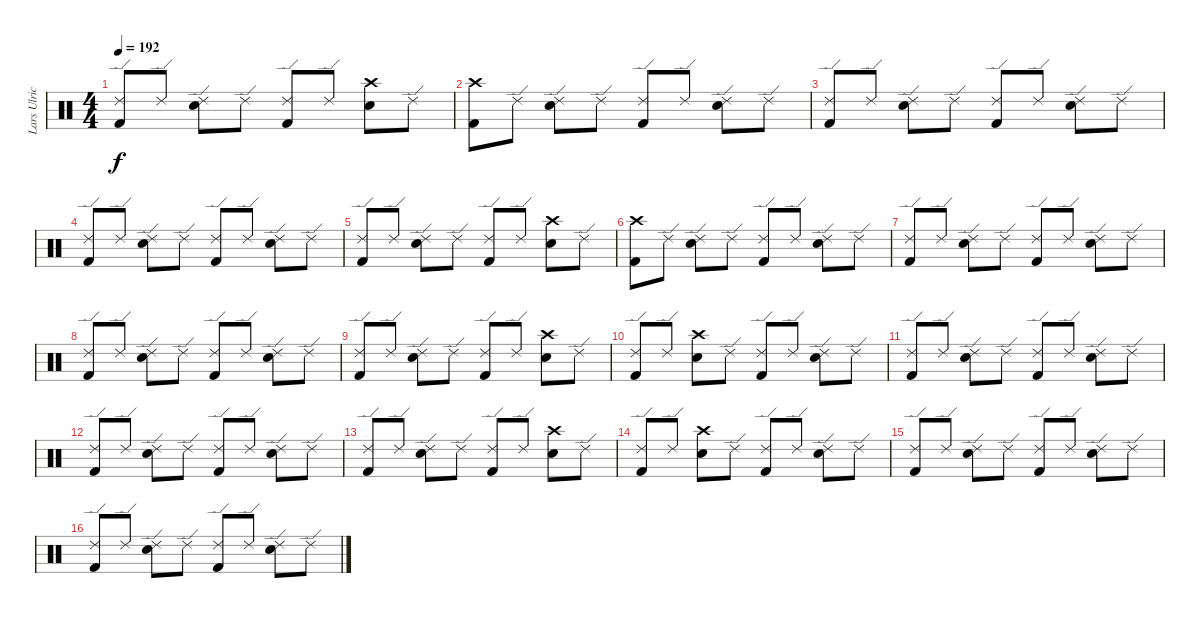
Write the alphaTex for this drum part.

\track ("Lars Ulrich" "Lars Ulric") {instrument percussion}
\staff {score}
\articulation defaults
\ts (4 4)
\tempo 192
\clef neutral
\ks c
("Ride (edge) 2" "Kick (hit) 2").8{dy f} "Ride (edge) 2".8 ("Ride (edge) 2" "Snare (hit) 2").8 "Ride (edge) 2".8 ("Ride (edge) 2" "Kick (hit) 2").8 "Ride (edge) 2".8 ("Crash high (hit)" "Snare (hit) 2").8 "Ride (edge) 2".8 |
("Crash high (hit)" "Kick (hit) 2").8 "Ride (edge) 2".8 ("Ride (edge) 2" "Snare (hit) 2").8 "Ride (edge) 2".8 ("Ride (edge) 2" "Kick (hit) 2").8 "Ride (edge) 2".8 ("Ride (edge) 2" "Snare (hit) 2").8 "Ride (edge) 2".8 |
("Ride (edge) 2" "Kick (hit) 2").8 "Ride (edge) 2".8 ("Ride (edge) 2" "Snare (hit) 2").8 "Ride (edge) 2".8 ("Ride (edge) 2" "Kick (hit) 2").8 "Ride (edge) 2".8 ("Ride (edge) 2" "Snare (hit) 2").8 "Ride (edge) 2".8 |
("Ride (edge) 2" "Kick (hit) 2").8 "Ride (edge) 2".8 ("Ride (edge) 2" "Snare (hit) 2").8 "Ride (edge) 2".8 ("Ride (edge) 2" "Kick (hit) 2").8 "Ride (edge) 2".8 ("Ride (edge) 2" "Snare (hit) 2").8 "Ride (edge) 2".8 |
("Ride (edge) 2" "Kick (hit) 2").8 "Ride (edge) 2".8 ("Ride (edge) 2" "Snare (hit) 2").8 "Ride (edge) 2".8 ("Ride (edge) 2" "Kick (hit) 2").8 "Ride (edge) 2".8 ("Crash high (hit)" "Snare (hit) 2").8 "Ride (edge) 2".8 |
("Crash high (hit)" "Kick (hit) 2").8 "Ride (edge) 2".8 ("Ride (edge) 2" "Snare (hit) 2").8 "Ride (edge) 2".8 ("Ride (edge) 2" "Kick (hit) 2").8 "Ride (edge) 2".8 ("Ride (edge) 2" "Snare (hit) 2").8 "Ride (edge) 2".8 |
("Ride (edge) 2" "Kick (hit) 2").8 "Ride (edge) 2".8 ("Ride (edge) 2" "Snare (hit) 2").8 "Ride (edge) 2".8 ("Ride (edge) 2" "Kick (hit) 2").8 "Ride (edge) 2".8 ("Ride (edge) 2" "Snare (hit) 2").8 "Ride (edge) 2".8 |
("Ride (edge) 2" "Kick (hit) 2").8 "Ride (edge) 2".8 ("Ride (edge) 2" "Snare (hit) 2").8 "Ride (edge) 2".8 ("Ride (edge) 2" "Kick (hit) 2").8 "Ride (edge) 2".8 ("Ride (edge) 2" "Snare (hit) 2").8 "Ride (edge) 2".8 |
("Ride (edge) 2" "Kick (hit) 2").8 "Ride (edge) 2".8 ("Ride (edge) 2" "Snare (hit) 2").8 "Ride (edge) 2".8 ("Ride (edge) 2" "Kick (hit) 2").8 "Ride (edge) 2".8 ("Crash high (hit)" "Snare (hit) 2").8 "Ride (edge) 2".8 |
("Ride (edge) 2" "Kick (hit) 2").8 "Ride (edge) 2".8 ("Crash high (hit)" "Snare (hit) 2").8 "Ride (edge) 2".8 ("Ride (edge) 2" "Kick (hit) 2").8 "Ride (edge) 2".8 ("Ride (edge) 2" "Snare (hit) 2").8 "Ride (edge) 2".8 |
("Ride (edge) 2" "Kick (hit) 2").8 "Ride (edge) 2".8 ("Ride (edge) 2" "Snare (hit) 2").8 "Ride (edge) 2".8 ("Ride (edge) 2" "Kick (hit) 2").8 "Ride (edge) 2".8 ("Ride (edge) 2" "Snare (hit) 2").8 "Ride (edge) 2".8 |
("Ride (edge) 2" "Kick (hit) 2").8 "Ride (edge) 2".8 ("Ride (edge) 2" "Snare (hit) 2").8 "Ride (edge) 2".8 ("Ride (edge) 2" "Kick (hit) 2").8 "Ride (edge) 2".8 ("Ride (edge) 2" "Snare (hit) 2").8 "Ride (edge) 2".8 |
("Ride (edge) 2" "Kick (hit) 2").8 "Ride (edge) 2".8 ("Ride (edge) 2" "Snare (hit) 2").8 "Ride (edge) 2".8 ("Ride (edge) 2" "Kick (hit) 2").8 "Ride (edge) 2".8 ("Crash high (hit)" "Snare (hit) 2").8 "Ride (edge) 2".8 |
("Ride (edge) 2" "Kick (hit) 2").8 "Ride (edge) 2".8 ("Crash high (hit)" "Snare (hit) 2").8 "Ride (edge) 2".8 ("Ride (edge) 2" "Kick (hit) 2").8 "Ride (edge) 2".8 ("Ride (edge) 2" "Snare (hit) 2").8 "Ride (edge) 2".8 |
("Ride (edge) 2" "Kick (hit) 2").8 "Ride (edge) 2".8 ("Ride (edge) 2" "Snare (hit) 2").8 "Ride (edge) 2".8 ("Ride (edge) 2" "Kick (hit) 2").8 "Ride (edge) 2".8 ("Ride (edge) 2" "Snare (hit) 2").8 "Ride (edge) 2".8 |
("Ride (edge) 2" "Kick (hit) 2").8 "Ride (edge) 2".8 ("Ride (edge) 2" "Snare (hit) 2").8 "Ride (edge) 2".8 ("Ride (edge) 2" "Kick (hit) 2").8 "Ride (edge) 2".8 ("Ride (edge) 2" "Snare (hit) 2").8 "Ride (edge) 2".8
